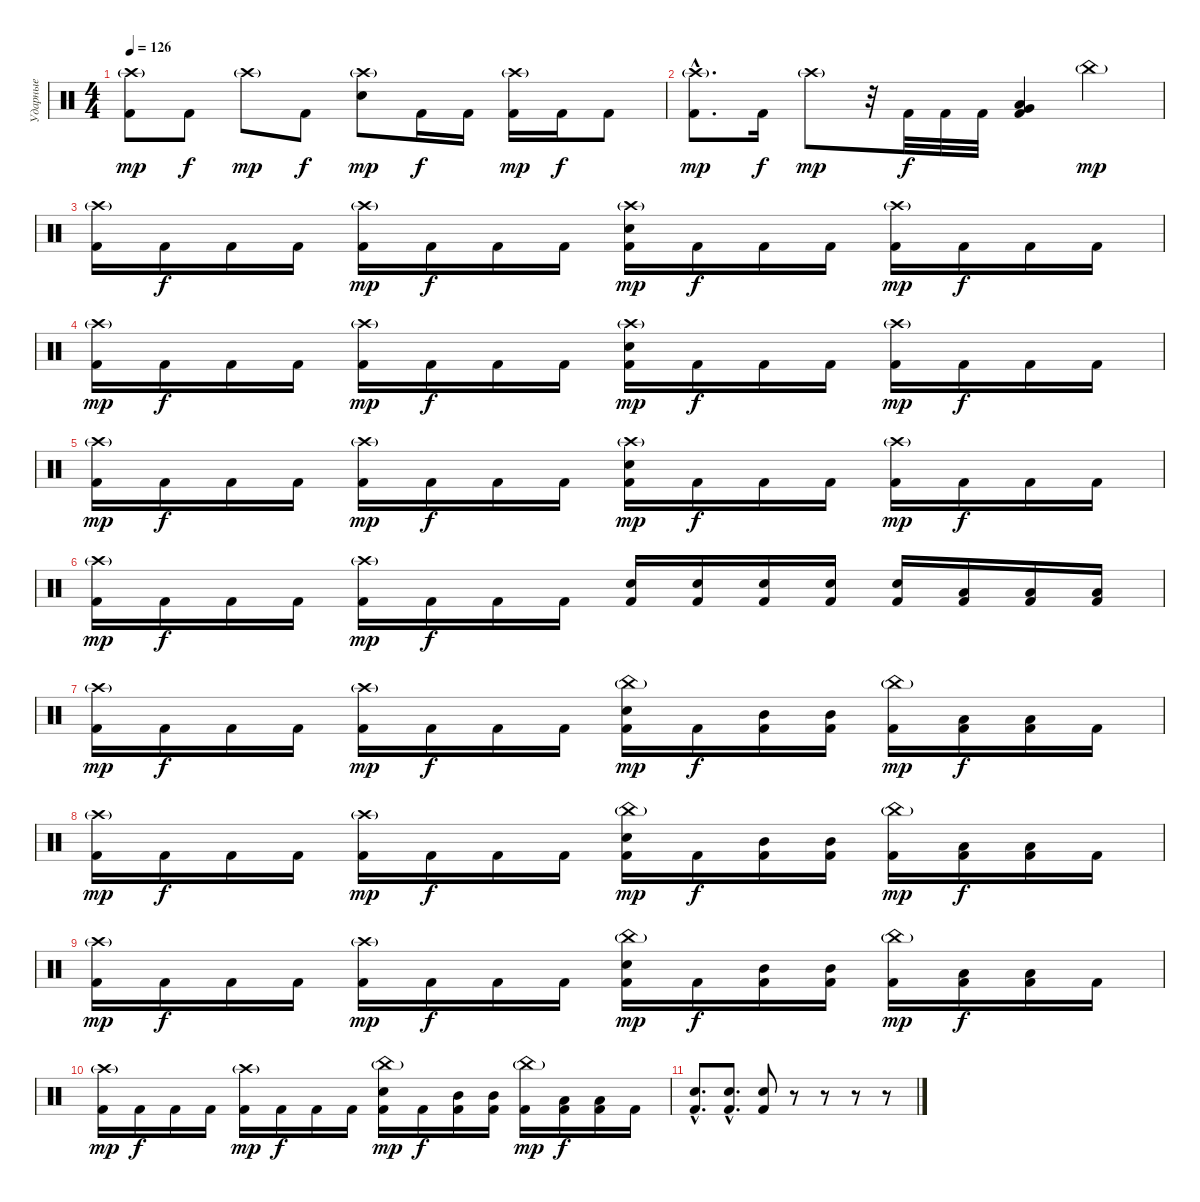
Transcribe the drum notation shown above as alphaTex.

\track ("Ударные" "Ударные") {instrument percussion}
\staff {score}
\articulation defaults
\ts (4 4)
\tempo 126
\clef neutral
\ks c
("Crash high (hit)"{g} "Kick (hit) 2").8{dy mp} "Kick (hit) 2".8{dy f} "Crash high (hit)"{g}.8{dy mp} "Kick (hit) 2".8{dy f} ("Crash high (hit)"{g} "Electric Snare (hit)").8{dy mp} "Kick (hit) 2".16{dy f} "Kick (hit) 2".16 ("Crash high (hit)"{g} "Kick (hit) 2").16{dy mp} "Kick (hit) 2".16{dy f} "Kick (hit) 2".8 |
("Crash high (hit)"{g hac} "Kick (hit) 2"{hac}).8{d dy mp} "Kick (hit) 2".16{dy f} "Crash high (hit)"{g}.8{dy mp} r.32 "Kick (hit) 2".32{dy f} "Kick (hit) 2".32 "Kick (hit) 2".32 ("Very Low Tom (hit)" "Low Tom (hit)" "Kick (hit) 2").4 "China (hit)"{g}.4{dy mp} |
("Crash high (hit)"{g} "Kick (hit) 2").16 "Kick (hit) 2".16{dy f} "Kick (hit) 2".16 "Kick (hit) 2".16 ("Crash high (hit)"{g} "Kick (hit) 2").16{dy mp} "Kick (hit) 2".16{dy f} "Kick (hit) 2".16 "Kick (hit) 2".16 ("Crash high (hit)"{g} "Electric Snare (hit)" "Kick (hit) 2").16{dy mp} "Kick (hit) 2".16{dy f} "Kick (hit) 2".16 "Kick (hit) 2".16 ("Crash high (hit)"{g} "Kick (hit) 2").16{dy mp} "Kick (hit) 2".16{dy f} "Kick (hit) 2".16 "Kick (hit) 2".16 |
("Crash high (hit)"{g} "Kick (hit) 2").16{dy mp} "Kick (hit) 2".16{dy f} "Kick (hit) 2".16 "Kick (hit) 2".16 ("Crash high (hit)"{g} "Kick (hit) 2").16{dy mp} "Kick (hit) 2".16{dy f} "Kick (hit) 2".16 "Kick (hit) 2".16 ("Crash high (hit)"{g} "Electric Snare (hit)" "Kick (hit) 2").16{dy mp} "Kick (hit) 2".16{dy f} "Kick (hit) 2".16 "Kick (hit) 2".16 ("Crash high (hit)"{g} "Kick (hit) 2").16{dy mp} "Kick (hit) 2".16{dy f} "Kick (hit) 2".16 "Kick (hit) 2".16 |
("Crash high (hit)"{g} "Kick (hit) 2").16{dy mp} "Kick (hit) 2".16{dy f} "Kick (hit) 2".16 "Kick (hit) 2".16 ("Crash high (hit)"{g} "Kick (hit) 2").16{dy mp} "Kick (hit) 2".16{dy f} "Kick (hit) 2".16 "Kick (hit) 2".16 ("Crash high (hit)"{g} "Electric Snare (hit)" "Kick (hit) 2").16{dy mp} "Kick (hit) 2".16{dy f} "Kick (hit) 2".16 "Kick (hit) 2".16 ("Crash high (hit)"{g} "Kick (hit) 2").16{dy mp} "Kick (hit) 2".16{dy f} "Kick (hit) 2".16 "Kick (hit) 2".16 |
("Crash high (hit)"{g} "Kick (hit) 2").16{dy mp} "Kick (hit) 2".16{dy f} "Kick (hit) 2".16 "Kick (hit) 2".16 ("Crash high (hit)"{g} "Kick (hit) 2").16{dy mp} "Kick (hit) 2".16{dy f} "Kick (hit) 2".16 "Kick (hit) 2".16 ("Electric Snare (hit)" "Kick (hit) 2").16 ("Electric Snare (hit)" "Kick (hit) 2").16 ("Electric Snare (hit)" "Kick (hit) 2").16 ("Electric Snare (hit)" "Kick (hit) 2").16 ("Electric Snare (hit)" "Kick (hit) 2").16 ("Low Tom (hit)" "Kick (hit) 2").16 ("Low Tom (hit)" "Kick (hit) 2").16 ("Low Tom (hit)" "Kick (hit) 2").16 |
("Crash high (hit)"{g} "Kick (hit) 2").16{dy mp} "Kick (hit) 2".16{dy f} "Kick (hit) 2".16 "Kick (hit) 2".16 ("Crash high (hit)"{g} "Kick (hit) 2").16{dy mp} "Kick (hit) 2".16{dy f} "Kick (hit) 2".16 "Kick (hit) 2".16 ("China (hit)"{g} "Electric Snare (hit)" "Kick (hit) 2").16{dy mp} "Kick (hit) 2".16{dy f} ("Mid Tom (hit)" "Kick (hit) 2").16 ("Mid Tom (hit)" "Kick (hit) 2").16 ("China (hit)"{g} "Kick (hit) 2").16{dy mp} ("Low Tom (hit)" "Kick (hit) 2").16{dy f} ("Low Tom (hit)" "Kick (hit) 2").16 "Kick (hit) 2".16 |
("Crash high (hit)"{g} "Kick (hit) 2").16{dy mp} "Kick (hit) 2".16{dy f} "Kick (hit) 2".16 "Kick (hit) 2".16 ("Crash high (hit)"{g} "Kick (hit) 2").16{dy mp} "Kick (hit) 2".16{dy f} "Kick (hit) 2".16 "Kick (hit) 2".16 ("China (hit)"{g} "Electric Snare (hit)" "Kick (hit) 2").16{dy mp} "Kick (hit) 2".16{dy f} ("Mid Tom (hit)" "Kick (hit) 2").16 ("Mid Tom (hit)" "Kick (hit) 2").16 ("China (hit)"{g} "Kick (hit) 2").16{dy mp} ("Low Tom (hit)" "Kick (hit) 2").16{dy f} ("Low Tom (hit)" "Kick (hit) 2").16 "Kick (hit) 2".16 |
("Crash high (hit)"{g} "Kick (hit) 2").16{dy mp} "Kick (hit) 2".16{dy f} "Kick (hit) 2".16 "Kick (hit) 2".16 ("Crash high (hit)"{g} "Kick (hit) 2").16{dy mp} "Kick (hit) 2".16{dy f} "Kick (hit) 2".16 "Kick (hit) 2".16 ("China (hit)"{g} "Electric Snare (hit)" "Kick (hit) 2").16{dy mp} "Kick (hit) 2".16{dy f} ("Mid Tom (hit)" "Kick (hit) 2").16 ("Mid Tom (hit)" "Kick (hit) 2").16 ("China (hit)"{g} "Kick (hit) 2").16{dy mp} ("Low Tom (hit)" "Kick (hit) 2").16{dy f} ("Low Tom (hit)" "Kick (hit) 2").16 "Kick (hit) 2".16 |
("Crash high (hit)"{g} "Kick (hit) 2").16{dy mp} "Kick (hit) 2".16{dy f} "Kick (hit) 2".16 "Kick (hit) 2".16 ("Crash high (hit)"{g} "Kick (hit) 2").16{dy mp} "Kick (hit) 2".16{dy f} "Kick (hit) 2".16 "Kick (hit) 2".16 ("China (hit)"{g} "Electric Snare (hit)" "Kick (hit) 2").16{dy mp} "Kick (hit) 2".16{dy f} ("Mid Tom (hit)" "Kick (hit) 2").16 ("Mid Tom (hit)" "Kick (hit) 2").16 ("China (hit)"{g} "Kick (hit) 2").16{dy mp} ("Low Tom (hit)" "Kick (hit) 2").16{dy f} ("Low Tom (hit)" "Kick (hit) 2").16 "Kick (hit) 2".16 |
("Electric Snare (hit)"{hac} "Kick (hit) 2"{hac}).8{d} ("Electric Snare (hit)"{hac} "Kick (hit) 2"{hac}).8{d} ("Electric Snare (hit)" "Kick (hit) 2").8 r.8 r.8 r.8 r.8
